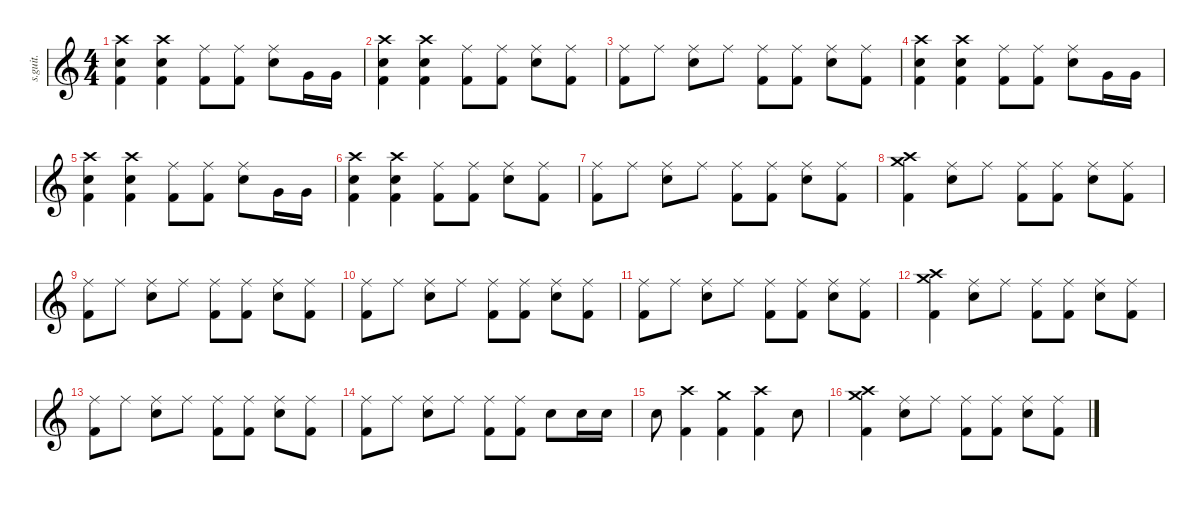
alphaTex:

\defaultSystemsLayout 4
\hideDynamics
\bracketExtendMode nobrackets
\track ("Bob Burns (Drums)" "s.guit.") {instrument percussion}
\staff {score}
\articulation defaults
\ts (4 4)
\tempo (150 hide)
\clef g2
\ks c
("Crash high (hit)" "Electric Snare (hit)" "Kick (hit) 2").4{lyrics (0 "") lyrics (1 "") lyrics (2 "") lyrics (3 "") lyrics (4 "") dy f} ("Crash high (hit)" "Electric Snare (hit)" "Kick (hit) 2").4{lyrics (0 "") lyrics (1 "") lyrics (2 "") lyrics (3 "") lyrics (4 "")} ("Ride (middle)" "Kick (hit) 2").8{lyrics (0 "") lyrics (1 "") lyrics (2 "") lyrics (3 "") lyrics (4 "")} ("Ride (middle)" "Kick (hit) 2").8{lyrics (0 "") lyrics (1 "") lyrics (2 "") lyrics (3 "") lyrics (4 "")} ("Ride (middle)" "Electric Snare (hit)").8{lyrics (0 "") lyrics (1 "") lyrics (2 "") lyrics (3 "") lyrics (4 "")} "Very Low Tom (hit)".16{lyrics (0 "") lyrics (1 "") lyrics (2 "") lyrics (3 "") lyrics (4 "")} "Very Low Tom (hit)".16{lyrics (0 "") lyrics (1 "") lyrics (2 "") lyrics (3 "") lyrics (4 "")} |
("Crash high (hit)" "Electric Snare (hit)" "Kick (hit) 2").4{lyrics (0 "") lyrics (1 "") lyrics (2 "") lyrics (3 "") lyrics (4 "")} ("Crash high (hit)" "Electric Snare (hit)" "Kick (hit) 2").4{lyrics (0 "") lyrics (1 "") lyrics (2 "") lyrics (3 "") lyrics (4 "")} ("Ride (middle)" "Kick (hit) 2").8{lyrics (0 "") lyrics (1 "") lyrics (2 "") lyrics (3 "") lyrics (4 "")} ("Ride (middle)" "Kick (hit) 2").8{lyrics (0 "") lyrics (1 "") lyrics (2 "") lyrics (3 "") lyrics (4 "")} ("Ride (middle)" "Electric Snare (hit)").8{lyrics (0 "") lyrics (1 "") lyrics (2 "") lyrics (3 "") lyrics (4 "")} ("Ride (middle)" "Kick (hit) 2").8{lyrics (0 "") lyrics (1 "") lyrics (2 "") lyrics (3 "") lyrics (4 "")} |
("Ride (middle)" "Kick (hit) 2").8{lyrics (0 "") lyrics (1 "") lyrics (2 "") lyrics (3 "") lyrics (4 "")} "Ride (middle)".8{lyrics (0 "") lyrics (1 "") lyrics (2 "") lyrics (3 "") lyrics (4 "")} ("Ride (middle)" "Electric Snare (hit)").8{lyrics (0 "") lyrics (1 "") lyrics (2 "") lyrics (3 "") lyrics (4 "")} "Ride (middle)".8{lyrics (0 "") lyrics (1 "") lyrics (2 "") lyrics (3 "") lyrics (4 "")} ("Ride (middle)" "Kick (hit) 2").8{lyrics (0 "") lyrics (1 "") lyrics (2 "") lyrics (3 "") lyrics (4 "")} ("Ride (middle)" "Kick (hit) 2").8{lyrics (0 "") lyrics (1 "") lyrics (2 "") lyrics (3 "") lyrics (4 "")} ("Ride (middle)" "Electric Snare (hit)").8{lyrics (0 "") lyrics (1 "") lyrics (2 "") lyrics (3 "") lyrics (4 "")} ("Ride (middle)" "Kick (hit) 2").8{lyrics (0 "") lyrics (1 "") lyrics (2 "") lyrics (3 "") lyrics (4 "")} |
("Crash high (hit)" "Electric Snare (hit)" "Kick (hit) 2").4{lyrics (0 "") lyrics (1 "") lyrics (2 "") lyrics (3 "") lyrics (4 "")} ("Crash high (hit)" "Electric Snare (hit)" "Kick (hit) 2").4{lyrics (0 "") lyrics (1 "") lyrics (2 "") lyrics (3 "") lyrics (4 "")} ("Ride (middle)" "Kick (hit) 2").8{lyrics (0 "") lyrics (1 "") lyrics (2 "") lyrics (3 "") lyrics (4 "")} ("Ride (middle)" "Kick (hit) 2").8{lyrics (0 "") lyrics (1 "") lyrics (2 "") lyrics (3 "") lyrics (4 "")} ("Ride (middle)" "Electric Snare (hit)").8{lyrics (0 "") lyrics (1 "") lyrics (2 "") lyrics (3 "") lyrics (4 "")} "Very Low Tom (hit)".16{lyrics (0 "") lyrics (1 "") lyrics (2 "") lyrics (3 "") lyrics (4 "")} "Very Low Tom (hit)".16{lyrics (0 "") lyrics (1 "") lyrics (2 "") lyrics (3 "") lyrics (4 "")} |
("Crash high (hit)" "Electric Snare (hit)" "Kick (hit) 2").4{lyrics (0 "") lyrics (1 "") lyrics (2 "") lyrics (3 "") lyrics (4 "")} ("Crash high (hit)" "Electric Snare (hit)" "Kick (hit) 2").4{lyrics (0 "") lyrics (1 "") lyrics (2 "") lyrics (3 "") lyrics (4 "")} ("Ride (middle)" "Kick (hit) 2").8{lyrics (0 "") lyrics (1 "") lyrics (2 "") lyrics (3 "") lyrics (4 "")} ("Ride (middle)" "Kick (hit) 2").8{lyrics (0 "") lyrics (1 "") lyrics (2 "") lyrics (3 "") lyrics (4 "")} ("Ride (middle)" "Electric Snare (hit)").8{lyrics (0 "") lyrics (1 "") lyrics (2 "") lyrics (3 "") lyrics (4 "")} "Very Low Tom (hit)".16{lyrics (0 "") lyrics (1 "") lyrics (2 "") lyrics (3 "") lyrics (4 "")} "Very Low Tom (hit)".16{lyrics (0 "") lyrics (1 "") lyrics (2 "") lyrics (3 "") lyrics (4 "")} |
("Crash high (hit)" "Electric Snare (hit)" "Kick (hit) 2").4{lyrics (0 "") lyrics (1 "") lyrics (2 "") lyrics (3 "") lyrics (4 "")} ("Crash high (hit)" "Electric Snare (hit)" "Kick (hit) 2").4{lyrics (0 "") lyrics (1 "") lyrics (2 "") lyrics (3 "") lyrics (4 "")} ("Ride (middle)" "Kick (hit) 2").8{lyrics (0 "") lyrics (1 "") lyrics (2 "") lyrics (3 "") lyrics (4 "")} ("Ride (middle)" "Kick (hit) 2").8{lyrics (0 "") lyrics (1 "") lyrics (2 "") lyrics (3 "") lyrics (4 "")} ("Ride (middle)" "Electric Snare (hit)").8{lyrics (0 "") lyrics (1 "") lyrics (2 "") lyrics (3 "") lyrics (4 "")} ("Ride (middle)" "Kick (hit) 2").8{lyrics (0 "") lyrics (1 "") lyrics (2 "") lyrics (3 "") lyrics (4 "")} |
("Ride (middle)" "Kick (hit) 2").8{lyrics (0 "") lyrics (1 "") lyrics (2 "") lyrics (3 "") lyrics (4 "")} "Ride (middle)".8{lyrics (0 "") lyrics (1 "") lyrics (2 "") lyrics (3 "") lyrics (4 "")} ("Ride (middle)" "Electric Snare (hit)").8{lyrics (0 "") lyrics (1 "") lyrics (2 "") lyrics (3 "") lyrics (4 "")} "Ride (middle)".8{lyrics (0 "") lyrics (1 "") lyrics (2 "") lyrics (3 "") lyrics (4 "")} ("Ride (middle)" "Kick (hit) 2").8{lyrics (0 "") lyrics (1 "") lyrics (2 "") lyrics (3 "") lyrics (4 "")} ("Ride (middle)" "Kick (hit) 2").8{lyrics (0 "") lyrics (1 "") lyrics (2 "") lyrics (3 "") lyrics (4 "")} ("Ride (middle)" "Electric Snare (hit)").8{lyrics (0 "") lyrics (1 "") lyrics (2 "") lyrics (3 "") lyrics (4 "")} ("Ride (middle)" "Kick (hit) 2").8{lyrics (0 "") lyrics (1 "") lyrics (2 "") lyrics (3 "") lyrics (4 "")} |
("Crash high (hit)" "Crash medium (hit)" "Kick (hit) 2").4{lyrics (0 "") lyrics (1 "") lyrics (2 "") lyrics (3 "") lyrics (4 "")} ("Ride (middle)" "Electric Snare (hit)").8{lyrics (0 "") lyrics (1 "") lyrics (2 "") lyrics (3 "") lyrics (4 "")} "Ride (middle)".8{lyrics (0 "") lyrics (1 "") lyrics (2 "") lyrics (3 "") lyrics (4 "")} ("Ride (middle)" "Kick (hit) 2").8{lyrics (0 "") lyrics (1 "") lyrics (2 "") lyrics (3 "") lyrics (4 "")} ("Ride (middle)" "Kick (hit) 2").8{lyrics (0 "") lyrics (1 "") lyrics (2 "") lyrics (3 "") lyrics (4 "")} ("Ride (middle)" "Electric Snare (hit)").8{lyrics (0 "") lyrics (1 "") lyrics (2 "") lyrics (3 "") lyrics (4 "")} ("Ride (middle)" "Kick (hit) 2").8{lyrics (0 "") lyrics (1 "") lyrics (2 "") lyrics (3 "") lyrics (4 "")} |
("Ride (middle)" "Kick (hit) 2").8{lyrics (0 "") lyrics (1 "") lyrics (2 "") lyrics (3 "") lyrics (4 "")} "Ride (middle)".8{lyrics (0 "") lyrics (1 "") lyrics (2 "") lyrics (3 "") lyrics (4 "")} ("Ride (middle)" "Electric Snare (hit)").8{lyrics (0 "") lyrics (1 "") lyrics (2 "") lyrics (3 "") lyrics (4 "")} "Ride (middle)".8{lyrics (0 "") lyrics (1 "") lyrics (2 "") lyrics (3 "") lyrics (4 "")} ("Ride (middle)" "Kick (hit) 2").8{lyrics (0 "") lyrics (1 "") lyrics (2 "") lyrics (3 "") lyrics (4 "")} ("Ride (middle)" "Kick (hit) 2").8{lyrics (0 "") lyrics (1 "") lyrics (2 "") lyrics (3 "") lyrics (4 "")} ("Ride (middle)" "Electric Snare (hit)").8{lyrics (0 "") lyrics (1 "") lyrics (2 "") lyrics (3 "") lyrics (4 "")} ("Ride (middle)" "Kick (hit) 2").8{lyrics (0 "") lyrics (1 "") lyrics (2 "") lyrics (3 "") lyrics (4 "")} |
("Ride (middle)" "Kick (hit) 2").8{lyrics (0 "") lyrics (1 "") lyrics (2 "") lyrics (3 "") lyrics (4 "")} "Ride (middle)".8{lyrics (0 "") lyrics (1 "") lyrics (2 "") lyrics (3 "") lyrics (4 "")} ("Ride (middle)" "Electric Snare (hit)").8{lyrics (0 "") lyrics (1 "") lyrics (2 "") lyrics (3 "") lyrics (4 "")} "Ride (middle)".8{lyrics (0 "") lyrics (1 "") lyrics (2 "") lyrics (3 "") lyrics (4 "")} ("Ride (middle)" "Kick (hit) 2").8{lyrics (0 "") lyrics (1 "") lyrics (2 "") lyrics (3 "") lyrics (4 "")} ("Ride (middle)" "Kick (hit) 2").8{lyrics (0 "") lyrics (1 "") lyrics (2 "") lyrics (3 "") lyrics (4 "")} ("Ride (middle)" "Electric Snare (hit)").8{lyrics (0 "") lyrics (1 "") lyrics (2 "") lyrics (3 "") lyrics (4 "")} ("Ride (middle)" "Kick (hit) 2").8{lyrics (0 "") lyrics (1 "") lyrics (2 "") lyrics (3 "") lyrics (4 "")} |
("Ride (middle)" "Kick (hit) 2").8{lyrics (0 "") lyrics (1 "") lyrics (2 "") lyrics (3 "") lyrics (4 "")} "Ride (middle)".8{lyrics (0 "") lyrics (1 "") lyrics (2 "") lyrics (3 "") lyrics (4 "")} ("Ride (middle)" "Electric Snare (hit)").8{lyrics (0 "") lyrics (1 "") lyrics (2 "") lyrics (3 "") lyrics (4 "")} "Ride (middle)".8{lyrics (0 "") lyrics (1 "") lyrics (2 "") lyrics (3 "") lyrics (4 "")} ("Ride (middle)" "Kick (hit) 2").8{lyrics (0 "") lyrics (1 "") lyrics (2 "") lyrics (3 "") lyrics (4 "")} ("Ride (middle)" "Kick (hit) 2").8{lyrics (0 "") lyrics (1 "") lyrics (2 "") lyrics (3 "") lyrics (4 "")} ("Ride (middle)" "Electric Snare (hit)").8{lyrics (0 "") lyrics (1 "") lyrics (2 "") lyrics (3 "") lyrics (4 "")} ("Ride (middle)" "Kick (hit) 2").8{lyrics (0 "") lyrics (1 "") lyrics (2 "") lyrics (3 "") lyrics (4 "")} |
("Crash high (hit)" "Crash medium (hit)" "Kick (hit) 2").4{lyrics (0 "") lyrics (1 "") lyrics (2 "") lyrics (3 "") lyrics (4 "")} ("Ride (middle)" "Electric Snare (hit)").8{lyrics (0 "") lyrics (1 "") lyrics (2 "") lyrics (3 "") lyrics (4 "")} "Ride (middle)".8{lyrics (0 "") lyrics (1 "") lyrics (2 "") lyrics (3 "") lyrics (4 "")} ("Ride (middle)" "Kick (hit) 2").8{lyrics (0 "") lyrics (1 "") lyrics (2 "") lyrics (3 "") lyrics (4 "")} ("Ride (middle)" "Kick (hit) 2").8{lyrics (0 "") lyrics (1 "") lyrics (2 "") lyrics (3 "") lyrics (4 "")} ("Ride (middle)" "Electric Snare (hit)").8{lyrics (0 "") lyrics (1 "") lyrics (2 "") lyrics (3 "") lyrics (4 "")} ("Ride (middle)" "Kick (hit) 2").8{lyrics (0 "") lyrics (1 "") lyrics (2 "") lyrics (3 "") lyrics (4 "")} |
("Ride (middle)" "Kick (hit) 2").8{lyrics (0 "") lyrics (1 "") lyrics (2 "") lyrics (3 "") lyrics (4 "")} "Ride (middle)".8{lyrics (0 "") lyrics (1 "") lyrics (2 "") lyrics (3 "") lyrics (4 "")} ("Ride (middle)" "Electric Snare (hit)").8{lyrics (0 "") lyrics (1 "") lyrics (2 "") lyrics (3 "") lyrics (4 "")} "Ride (middle)".8{lyrics (0 "") lyrics (1 "") lyrics (2 "") lyrics (3 "") lyrics (4 "")} ("Ride (middle)" "Kick (hit) 2").8{lyrics (0 "") lyrics (1 "") lyrics (2 "") lyrics (3 "") lyrics (4 "")} ("Ride (middle)" "Kick (hit) 2").8{lyrics (0 "") lyrics (1 "") lyrics (2 "") lyrics (3 "") lyrics (4 "")} ("Ride (middle)" "Electric Snare (hit)").8{lyrics (0 "") lyrics (1 "") lyrics (2 "") lyrics (3 "") lyrics (4 "")} ("Ride (middle)" "Kick (hit) 2").8{lyrics (0 "") lyrics (1 "") lyrics (2 "") lyrics (3 "") lyrics (4 "")} |
("Ride (middle)" "Kick (hit) 2").8{lyrics (0 "") lyrics (1 "") lyrics (2 "") lyrics (3 "") lyrics (4 "")} "Ride (middle)".8{lyrics (0 "") lyrics (1 "") lyrics (2 "") lyrics (3 "") lyrics (4 "")} ("Ride (middle)" "Electric Snare (hit)").8{lyrics (0 "") lyrics (1 "") lyrics (2 "") lyrics (3 "") lyrics (4 "")} "Ride (middle)".8{lyrics (0 "") lyrics (1 "") lyrics (2 "") lyrics (3 "") lyrics (4 "")} ("Ride (middle)" "Kick (hit) 2").8{lyrics (0 "") lyrics (1 "") lyrics (2 "") lyrics (3 "") lyrics (4 "")} ("Ride (middle)" "Kick (hit) 2").8{lyrics (0 "") lyrics (1 "") lyrics (2 "") lyrics (3 "") lyrics (4 "")} "Electric Snare (hit)".8{lyrics (0 "") lyrics (1 "") lyrics (2 "") lyrics (3 "") lyrics (4 "")} "Electric Snare (hit)".16{lyrics (0 "") lyrics (1 "") lyrics (2 "") lyrics (3 "") lyrics (4 "")} "Electric Snare (hit)".16{lyrics (0 "") lyrics (1 "") lyrics (2 "") lyrics (3 "") lyrics (4 "")} |
"Electric Snare (hit)".8{lyrics (0 "") lyrics (1 "") lyrics (2 "") lyrics (3 "") lyrics (4 "")} ("Crash high (hit)" "Kick (hit) 2").4{lyrics (0 "") lyrics (1 "") lyrics (2 "") lyrics (3 "") lyrics (4 "")} ("Crash medium (hit)" "Kick (hit) 2").4{lyrics (0 "") lyrics (1 "") lyrics (2 "") lyrics (3 "") lyrics (4 "")} ("Crash high (hit)" "Kick (hit) 2").4{lyrics (0 "") lyrics (1 "") lyrics (2 "") lyrics (3 "") lyrics (4 "")} "Electric Snare (hit)".8{lyrics (0 "") lyrics (1 "") lyrics (2 "") lyrics (3 "") lyrics (4 "")} |
("Crash high (hit)" "Crash medium (hit)" "Kick (hit) 2").4{lyrics (0 "") lyrics (1 "") lyrics (2 "") lyrics (3 "") lyrics (4 "")} ("Ride (middle)" "Electric Snare (hit)").8{lyrics (0 "") lyrics (1 "") lyrics (2 "") lyrics (3 "") lyrics (4 "")} "Ride (middle)".8{lyrics (0 "") lyrics (1 "") lyrics (2 "") lyrics (3 "") lyrics (4 "")} ("Ride (middle)" "Kick (hit) 2").8{lyrics (0 "") lyrics (1 "") lyrics (2 "") lyrics (3 "") lyrics (4 "")} ("Ride (middle)" "Kick (hit) 2").8{lyrics (0 "") lyrics (1 "") lyrics (2 "") lyrics (3 "") lyrics (4 "")} ("Ride (middle)" "Electric Snare (hit)").8{lyrics (0 "") lyrics (1 "") lyrics (2 "") lyrics (3 "") lyrics (4 "")} ("Ride (middle)" "Kick (hit) 2").8{lyrics (0 "") lyrics (1 "") lyrics (2 "") lyrics (3 "") lyrics (4 "")}
